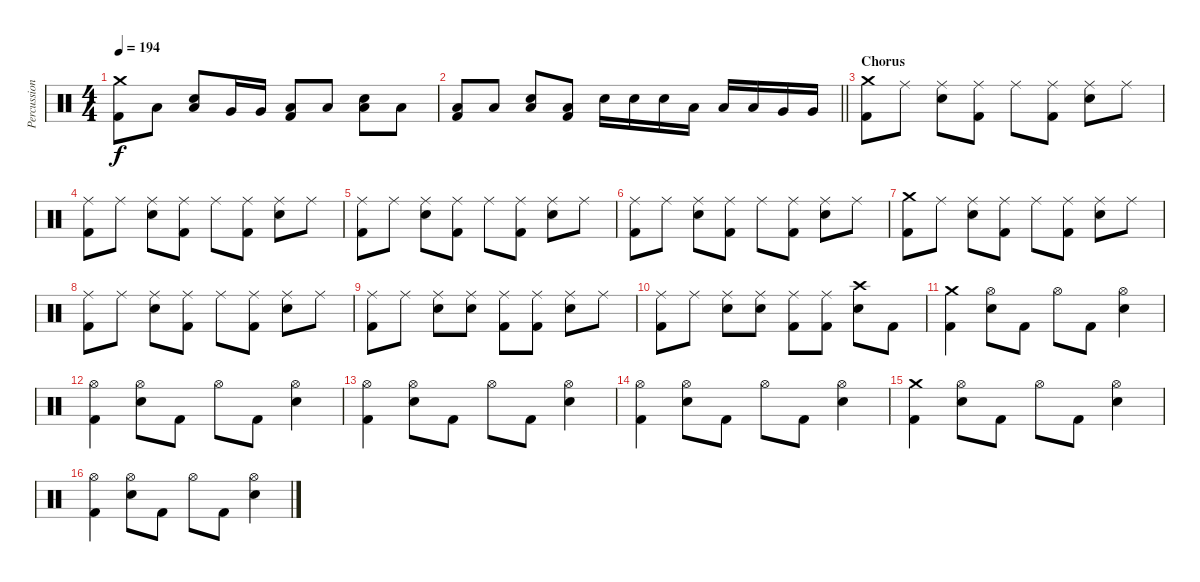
\track ("Percussions" "Percussion") {instrument percussion}
\staff {score}
\articulation defaults
\ts (4 4)
\tempo 194
\clef neutral
\ks c
("Crash medium (hit)" "Kick (hit) 2").8{dy f} "Low Floor Tom (hit)".8 ("Low Floor Tom (hit)" "Electric Snare (hit)").8 "Very Low Tom (hit)".16 "Very Low Tom (hit)".16 ("Low Floor Tom (hit)" "Kick (hit) 2").8 "Low Floor Tom (hit)".8 ("Low Floor Tom (hit)" "Electric Snare (hit)").8 "Low Floor Tom (hit)".8 |
\barLineRight lightlight
("Low Floor Tom (hit)" "Kick (hit) 2").8 "Low Floor Tom (hit)".8 ("Low Floor Tom (hit)" "Electric Snare (hit)").8 ("Low Floor Tom (hit)" "Kick (hit) 2").8 "Electric Snare (hit)".16 "Electric Snare (hit)".16 "Electric Snare (hit)".16 "Low Tom (hit)".16 "Low Tom (hit)".16 "Low Tom (hit)".16 "Very Low Tom (hit)".16 "Very Low Tom (hit)".16 |
\section ("" "Chorus")
("Crash medium (hit)" "Kick (hit) 2").8 "Ride (middle)".8 ("Ride (middle)" "Electric Snare (hit)").8 ("Ride (middle)" "Kick (hit) 2").8 "Ride (middle)".8 ("Ride (middle)" "Kick (hit) 2").8 ("Ride (middle)" "Electric Snare (hit)").8 "Ride (middle)".8 |
("Ride (middle)" "Kick (hit) 2").8 "Ride (middle)".8 ("Ride (middle)" "Electric Snare (hit)").8 ("Ride (middle)" "Kick (hit) 2").8 "Ride (middle)".8 ("Ride (middle)" "Kick (hit) 2").8 ("Ride (middle)" "Electric Snare (hit)").8 "Ride (middle)".8 |
("Ride (middle)" "Kick (hit) 2").8 "Ride (middle)".8 ("Ride (middle)" "Electric Snare (hit)").8 ("Ride (middle)" "Kick (hit) 2").8 "Ride (middle)".8 ("Ride (middle)" "Kick (hit) 2").8 ("Ride (middle)" "Electric Snare (hit)").8 "Ride (middle)".8 |
("Ride (middle)" "Kick (hit) 2").8 "Ride (middle)".8 ("Ride (middle)" "Electric Snare (hit)").8 ("Ride (middle)" "Kick (hit) 2").8 "Ride (middle)".8 ("Ride (middle)" "Kick (hit) 2").8 ("Ride (middle)" "Electric Snare (hit)").8 "Ride (middle)".8 |
("Crash medium (hit)" "Kick (hit) 2").8 "Ride (middle)".8 ("Ride (middle)" "Electric Snare (hit)").8 ("Ride (middle)" "Kick (hit) 2").8 "Ride (middle)".8 ("Ride (middle)" "Kick (hit) 2").8 ("Ride (middle)" "Electric Snare (hit)").8 "Ride (middle)".8 |
("Ride (middle)" "Kick (hit) 2").8 "Ride (middle)".8 ("Ride (middle)" "Electric Snare (hit)").8 ("Ride (middle)" "Kick (hit) 2").8 "Ride (middle)".8 ("Ride (middle)" "Kick (hit) 2").8 ("Ride (middle)" "Electric Snare (hit)").8 "Ride (middle)".8 |
("Ride (middle)" "Kick (hit) 2").8 "Ride (middle)".8 ("Ride (middle)" "Electric Snare (hit)").8 ("Ride (middle)" "Electric Snare (hit)").8 ("Ride (middle)" "Kick (hit) 2").8 ("Ride (middle)" "Kick (hit) 2").8 ("Ride (middle)" "Electric Snare (hit)").8 "Ride (middle)".8 |
("Ride (middle)" "Kick (hit) 2").8 "Ride (middle)".8 ("Ride (middle)" "Electric Snare (hit)").8 ("Ride (middle)" "Electric Snare (hit)").8 ("Ride (middle)" "Kick (hit) 2").8 ("Ride (middle)" "Kick (hit) 2").8 ("Crash high (hit)" "Electric Snare (hit)").8 "Kick (hit) 2".8 |
("Crash medium (hit)" "Kick (hit) 2").4 ("Hi-Hat (open)" "Electric Snare (hit)").8 "Kick (hit) 2".8 "Hi-Hat (open)".8 "Kick (hit) 2".8 ("Hi-Hat (open)" "Electric Snare (hit)").4 |
("Hi-Hat (open)" "Kick (hit) 2").4 ("Hi-Hat (open)" "Electric Snare (hit)").8 "Kick (hit) 2".8 "Hi-Hat (open)".8 "Kick (hit) 2".8 ("Hi-Hat (open)" "Electric Snare (hit)").4 |
("Hi-Hat (open)" "Kick (hit) 2").4 ("Hi-Hat (open)" "Electric Snare (hit)").8 "Kick (hit) 2".8 "Hi-Hat (open)".8 "Kick (hit) 2".8 ("Hi-Hat (open)" "Electric Snare (hit)").4 |
("Hi-Hat (open)" "Kick (hit) 2").4 ("Hi-Hat (open)" "Electric Snare (hit)").8 "Kick (hit) 2".8 "Hi-Hat (open)".8 "Kick (hit) 2".8 ("Hi-Hat (open)" "Electric Snare (hit)").4 |
("Crash medium (hit)" "Kick (hit) 2").4 ("Hi-Hat (open)" "Electric Snare (hit)").8 "Kick (hit) 2".8 "Hi-Hat (open)".8 "Kick (hit) 2".8 ("Hi-Hat (open)" "Electric Snare (hit)").4 |
("Hi-Hat (open)" "Kick (hit) 2").4 ("Hi-Hat (open)" "Electric Snare (hit)").8 "Kick (hit) 2".8 "Hi-Hat (open)".8 "Kick (hit) 2".8 ("Hi-Hat (open)" "Electric Snare (hit)").4
